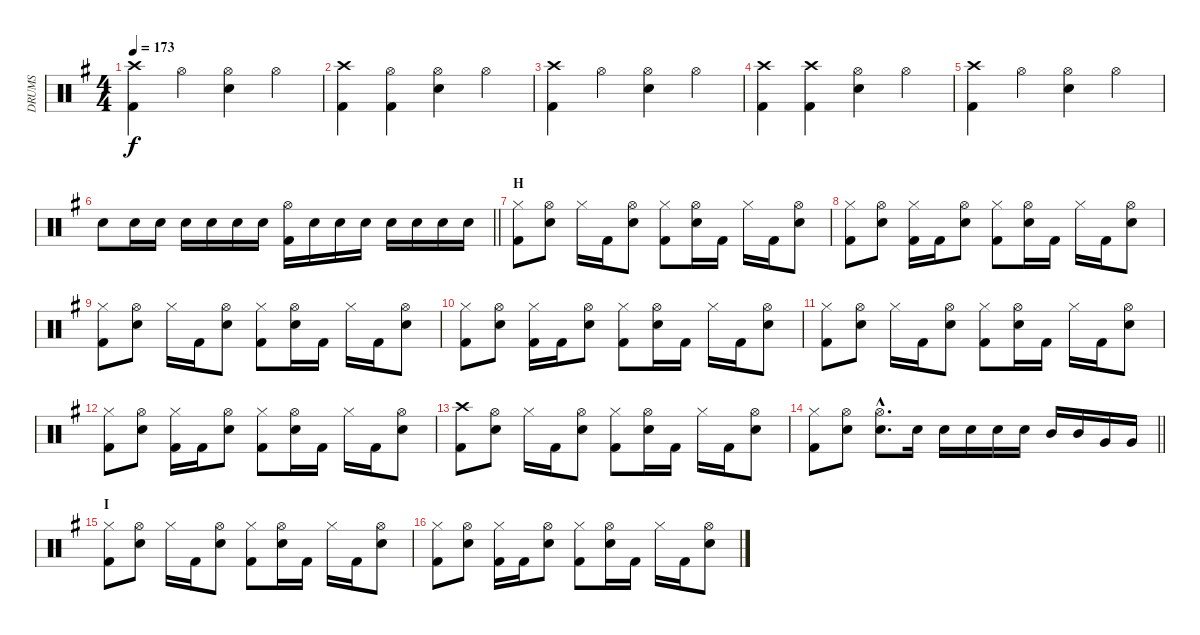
\track ("DRUMS" "DRUMS") {instrument percussion}
\staff {score}
\articulation defaults
\ts (4 4)
\tempo 173
\clef neutral
\ks g
("Crash high (hit)" "Kick (hit) 2").4{dy f} "Hi-Hat (open)".4 ("Hi-Hat (open)" "Snare (hit) 2").4 "Hi-Hat (open)".4 |
("Crash high (hit)" "Kick (hit) 2").4 ("Hi-Hat (open)" "Kick (hit) 2").4 ("Hi-Hat (open)" "Snare (hit) 2").4 "Hi-Hat (open)".4 |
("Crash high (hit)" "Kick (hit) 2").4 "Hi-Hat (open)".4 ("Hi-Hat (open)" "Snare (hit) 2").4 "Hi-Hat (open)".4 |
("Crash high (hit)" "Kick (hit) 2").4 ("Crash high (hit)" "Kick (hit) 2").4 ("Hi-Hat (open)" "Snare (hit) 2").4 "Hi-Hat (open)".4 |
("Crash high (hit)" "Kick (hit) 2").4 "Hi-Hat (open)".4 ("Hi-Hat (open)" "Snare (hit) 2").4 "Hi-Hat (open)".4 |
\barLineRight lightlight "Snare (hit) 2".8 "Snare (hit) 2".16 "Snare (hit) 2".16 "Snare (hit) 2".16 "Snare (hit) 2".16 "Snare (hit) 2".16 "Snare (hit) 2".16
("Hi-Hat (open)" "Kick (hit) 2").16 "Snare (hit) 2".16 "Snare (hit) 2".16 "Snare (hit) 2".16 "Snare (hit) 2".16 "Snare (hit) 2".16 "Snare (hit) 2".16 "Snare (hit) 2".16 |
\section ("" "H")
("Hi-Hat (closed)" "Kick (hit) 2").8 ("Hi-Hat (open)" "Snare (hit) 2").8 "Hi-Hat (closed)".16 "Kick (hit) 2".16 ("Hi-Hat (open)" "Snare (hit) 2").8 ("Hi-Hat (closed)" "Kick (hit) 2").8 ("Hi-Hat (open)" "Snare (hit) 2").16 "Kick (hit) 2".16 "Hi-Hat (closed)".16 "Kick (hit) 2".16 ("Hi-Hat (open)" "Snare (hit) 2").8 |
("Hi-Hat (closed)" "Kick (hit) 2").8 ("Hi-Hat (open)" "Snare (hit) 2").8 ("Hi-Hat (closed)" "Kick (hit) 2").16 "Kick (hit) 2".16 ("Hi-Hat (open)" "Snare (hit) 2").8 ("Hi-Hat (closed)" "Kick (hit) 2").8 ("Hi-Hat (open)" "Snare (hit) 2").16 "Kick (hit) 2".16 "Hi-Hat (closed)".16 "Kick (hit) 2".16 ("Hi-Hat (open)" "Snare (hit) 2").8 |
("Hi-Hat (closed)" "Kick (hit) 2").8 ("Hi-Hat (open)" "Snare (hit) 2").8 "Hi-Hat (closed)".16 "Kick (hit) 2".16 ("Hi-Hat (open)" "Snare (hit) 2").8 ("Hi-Hat (closed)" "Kick (hit) 2").8 ("Hi-Hat (open)" "Snare (hit) 2").16 "Kick (hit) 2".16 "Hi-Hat (closed)".16 "Kick (hit) 2".16 ("Hi-Hat (open)" "Snare (hit) 2").8 |
("Hi-Hat (closed)" "Kick (hit) 2").8 ("Hi-Hat (open)" "Snare (hit) 2").8 ("Hi-Hat (closed)" "Kick (hit) 2").16 "Kick (hit) 2".16 ("Hi-Hat (open)" "Snare (hit) 2").8 ("Hi-Hat (closed)" "Kick (hit) 2").8 ("Hi-Hat (open)" "Snare (hit) 2").16 "Kick (hit) 2".16 "Hi-Hat (closed)".16 "Kick (hit) 2".16 ("Hi-Hat (open)" "Snare (hit) 2").8 |
("Hi-Hat (closed)" "Kick (hit) 2").8 ("Hi-Hat (open)" "Snare (hit) 2").8 "Hi-Hat (closed)".16 "Kick (hit) 2".16 ("Hi-Hat (open)" "Snare (hit) 2").8 ("Hi-Hat (closed)" "Kick (hit) 2").8 ("Hi-Hat (open)" "Snare (hit) 2").16 "Kick (hit) 2".16 "Hi-Hat (closed)".16 "Kick (hit) 2".16 ("Hi-Hat (open)" "Snare (hit) 2").8 |
("Hi-Hat (closed)" "Kick (hit) 2").8 ("Hi-Hat (open)" "Snare (hit) 2").8 ("Hi-Hat (closed)" "Kick (hit) 2").16 "Kick (hit) 2".16 ("Hi-Hat (open)" "Snare (hit) 2").8 ("Hi-Hat (closed)" "Kick (hit) 2").8 ("Hi-Hat (open)" "Snare (hit) 2").16 "Kick (hit) 2".16 "Hi-Hat (closed)".16 "Kick (hit) 2".16 ("Hi-Hat (open)" "Snare (hit) 2").8 |
("Crash high (hit)" "Kick (hit) 2").8 ("Hi-Hat (open)" "Snare (hit) 2").8 "Hi-Hat (closed)".16 "Kick (hit) 2".16 ("Hi-Hat (open)" "Snare (hit) 2").8 ("Hi-Hat (closed)" "Kick (hit) 2").8 ("Hi-Hat (open)" "Snare (hit) 2").16 "Kick (hit) 2".16 "Hi-Hat (closed)".16 "Kick (hit) 2".16 ("Hi-Hat (open)" "Snare (hit) 2").8 |
\barLineRight lightlight
("Hi-Hat (closed)" "Kick (hit) 2").8 ("Hi-Hat (open)" "Snare (hit) 2").8 ("Hi-Hat (open)"{hac} "Snare (hit) 2"{hac}).8{d} "Snare (hit) 2".16 "Snare (hit) 2".16 "Snare (hit) 2".16 "Snare (hit) 2".16 "Snare (hit) 2".16 "Mid Tom (hit)".16 "Mid Tom (hit)".16 "Very Low Tom (hit)".16 "Very Low Tom (hit)".16 |
\section ("" "I")
("Hi-Hat (closed)" "Kick (hit) 2").8 ("Hi-Hat (open)" "Snare (hit) 2").8 "Hi-Hat (closed)".16 "Kick (hit) 2".16 ("Hi-Hat (open)" "Snare (hit) 2").8 ("Hi-Hat (closed)" "Kick (hit) 2").8 ("Hi-Hat (open)" "Snare (hit) 2").16 "Kick (hit) 2".16 "Hi-Hat (closed)".16 "Kick (hit) 2".16 ("Hi-Hat (open)" "Snare (hit) 2").8 |
("Hi-Hat (closed)" "Kick (hit) 2").8 ("Hi-Hat (open)" "Snare (hit) 2").8 ("Hi-Hat (closed)" "Kick (hit) 2").16 "Kick (hit) 2".16 ("Hi-Hat (open)" "Snare (hit) 2").8 ("Hi-Hat (closed)" "Kick (hit) 2").8 ("Hi-Hat (open)" "Snare (hit) 2").16 "Kick (hit) 2".16 "Hi-Hat (closed)".16 "Kick (hit) 2".16 ("Hi-Hat (open)" "Snare (hit) 2").8
